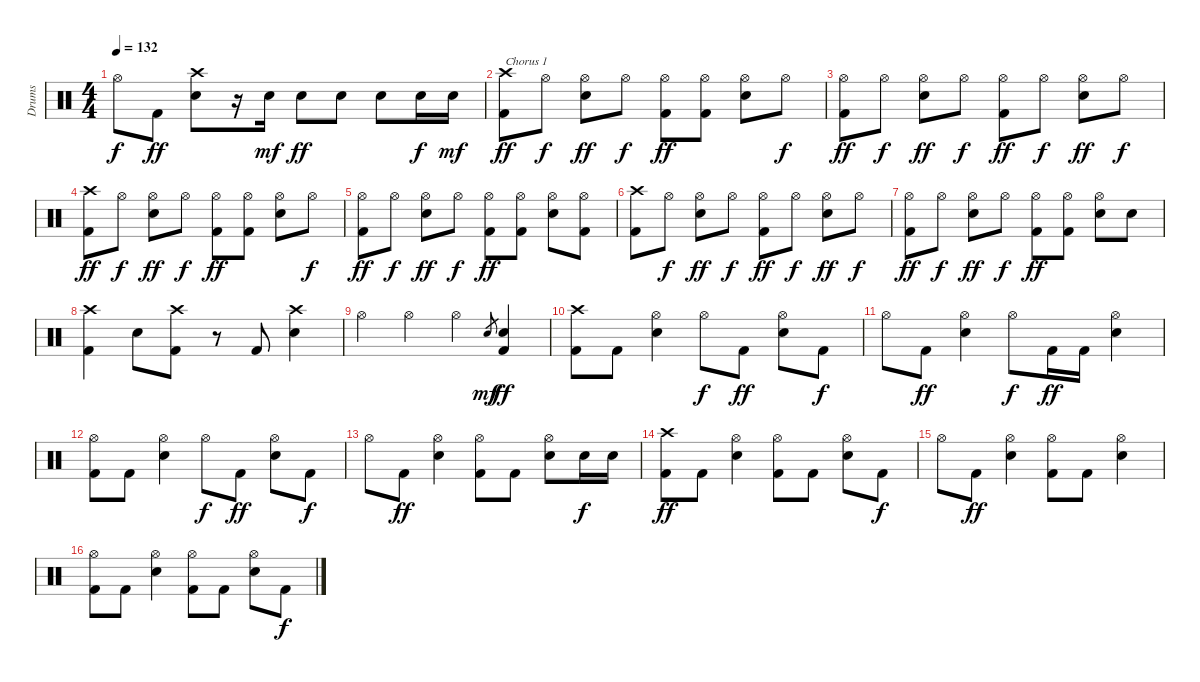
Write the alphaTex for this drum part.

\track ("Drums" "Drums") {instrument percussion}
\staff {score}
\articulation defaults
\ts (4 4)
\tempo 132
\clef neutral
\ks c "Hi-Hat (open)".8{dy f} "Kick (hit) 2".8{dy ff}
("Crash high (hit)" "Snare (hit) 2").8 r.16 "Snare (hit) 2".16{dy mf} "Snare (hit) 2".8{dy ff} "Snare (hit) 2".8 "Snare (hit) 2".8 "Snare (hit) 2".16{dy f} "Snare (hit) 2".16{dy mf} |
("Crash high (hit)" "Kick (hit) 2").8{txt "Chorus 1" dy ff} "Hi-Hat (open)".8{dy f} ("Hi-Hat (open)" "Snare (hit) 2").8{dy ff} "Hi-Hat (open)".8{dy f} ("Hi-Hat (open)" "Kick (hit) 2").8{dy ff} ("Hi-Hat (open)" "Kick (hit) 2").8 ("Hi-Hat (open)" "Snare (hit) 2").8 "Hi-Hat (open)".8{dy f} |
("Hi-Hat (open)" "Kick (hit) 2").8{dy ff} "Hi-Hat (open)".8{dy f} ("Hi-Hat (open)" "Snare (hit) 2").8{dy ff} "Hi-Hat (open)".8{dy f} ("Hi-Hat (open)" "Kick (hit) 2").8{dy ff} "Hi-Hat (open)".8{dy f} ("Hi-Hat (open)" "Snare (hit) 2").8{dy ff} "Hi-Hat (open)".8{dy f} |
("Crash high (hit)" "Kick (hit) 2").8{dy ff} "Hi-Hat (open)".8{dy f} ("Hi-Hat (open)" "Snare (hit) 2").8{dy ff} "Hi-Hat (open)".8{dy f} ("Hi-Hat (open)" "Kick (hit) 2").8{dy ff} ("Hi-Hat (open)" "Kick (hit) 2").8 ("Hi-Hat (open)" "Snare (hit) 2").8 "Hi-Hat (open)".8{dy f} |
("Hi-Hat (open)" "Kick (hit) 2").8{dy ff} "Hi-Hat (open)".8{dy f} ("Hi-Hat (open)" "Snare (hit) 2").8{dy ff} "Hi-Hat (open)".8{dy f} ("Hi-Hat (open)" "Kick (hit) 2").8{dy ff} ("Hi-Hat (open)" "Kick (hit) 2").8 ("Hi-Hat (open)" "Snare (hit) 2").8 ("Hi-Hat (open)" "Kick (hit) 2").8 |
("Crash high (hit)" "Kick (hit) 2").8 "Hi-Hat (open)".8{dy f} ("Hi-Hat (open)" "Snare (hit) 2").8{dy ff} "Hi-Hat (open)".8{dy f} ("Hi-Hat (open)" "Kick (hit) 2").8{dy ff} "Hi-Hat (open)".8{dy f} ("Hi-Hat (open)" "Snare (hit) 2").8{dy ff} "Hi-Hat (open)".8{dy f} |
("Hi-Hat (open)" "Kick (hit) 2").8{dy ff} "Hi-Hat (open)".8{dy f} ("Hi-Hat (open)" "Snare (hit) 2").8{dy ff} "Hi-Hat (open)".8{dy f} ("Hi-Hat (open)" "Kick (hit) 2").8{dy ff} ("Hi-Hat (open)" "Kick (hit) 2").8 ("Hi-Hat (open)" "Snare (hit) 2").8 "Snare (hit) 2".8 |
("Crash high (hit)" "Kick (hit) 2").4 "Snare (hit) 2".8 ("Crash high (hit)" "Kick (hit) 2").8 r.8 "Kick (hit) 2".8 ("Crash high (hit)" "Snare (hit) 2").4 |
"Hi-Hat (open)".4 "Hi-Hat (open)".4 "Hi-Hat (open)".4 "Snare (hit) 2".8{gr dy mf} ("Snare (hit) 2" "Kick (hit) 2").4{dy ff} |
("Crash high (hit)" "Kick (hit) 2").8 "Kick (hit) 2".8 ("Hi-Hat (open)" "Snare (hit) 2").4 "Hi-Hat (open)".8{dy f} "Kick (hit) 2".8{dy ff} ("Hi-Hat (open)" "Snare (hit) 2").8 "Kick (hit) 2".8{dy f} |
"Hi-Hat (open)".8 "Kick (hit) 2".8{dy ff} ("Hi-Hat (open)" "Snare (hit) 2").4 "Hi-Hat (open)".8{dy f} "Kick (hit) 2".16{dy ff} "Kick (hit) 2".16 ("Hi-Hat (open)" "Snare (hit) 2").4 |
("Hi-Hat (open)" "Kick (hit) 2").8 "Kick (hit) 2".8 ("Hi-Hat (open)" "Snare (hit) 2").4 "Hi-Hat (open)".8{dy f} "Kick (hit) 2".8{dy ff} ("Hi-Hat (open)" "Snare (hit) 2").8 "Kick (hit) 2".8{dy f} |
"Hi-Hat (open)".8 "Kick (hit) 2".8{dy ff} ("Hi-Hat (open)" "Snare (hit) 2").4 ("Hi-Hat (open)" "Kick (hit) 2").8 "Kick (hit) 2".8 ("Hi-Hat (open)" "Snare (hit) 2").8 "Snare (hit) 2".16{dy f} "Snare (hit) 2".16 |
("Crash high (hit)" "Kick (hit) 2").8{dy ff} "Kick (hit) 2".8 ("Hi-Hat (open)" "Snare (hit) 2").4 ("Hi-Hat (open)" "Kick (hit) 2").8 "Kick (hit) 2".8 ("Hi-Hat (open)" "Snare (hit) 2").8 "Kick (hit) 2".8{dy f} |
"Hi-Hat (open)".8 "Kick (hit) 2".8{dy ff} ("Hi-Hat (open)" "Snare (hit) 2").4 ("Hi-Hat (open)" "Kick (hit) 2").8 "Kick (hit) 2".8 ("Hi-Hat (open)" "Snare (hit) 2").4 |
("Hi-Hat (open)" "Kick (hit) 2").8 "Kick (hit) 2".8 ("Hi-Hat (open)" "Snare (hit) 2").4 ("Hi-Hat (open)" "Kick (hit) 2").8 "Kick (hit) 2".8 ("Hi-Hat (open)" "Snare (hit) 2").8 "Kick (hit) 2".8{dy f}
